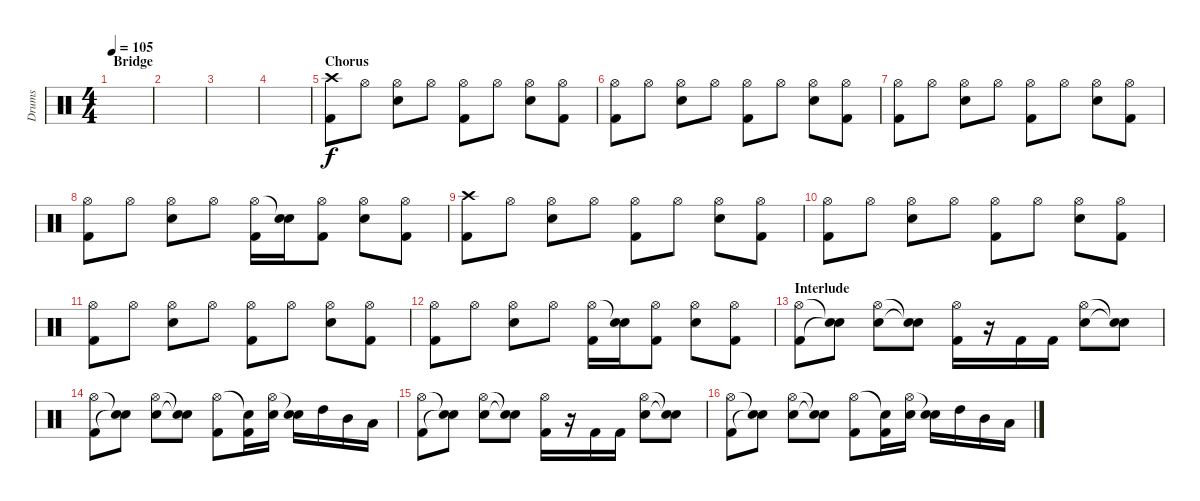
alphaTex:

\track ("Drums" "Drums") {instrument percussion}
\staff {score}
\articulation defaults
\ts (4 4)
\section ("" "Bridge")
\tempo 105
\clef neutral
\ks c
|
|
|
|
\section ("" "Chorus")
("Crash high (hit)" "Kick (hit) 2").8 "Hi-Hat (open)".8 ("Hi-Hat (open)" "Electric Snare (hit)").8 "Hi-Hat (open)".8 ("Hi-Hat (open)" "Kick (hit) 2").8 "Hi-Hat (open)".8 ("Hi-Hat (open)" "Electric Snare (hit)").8 ("Hi-Hat (open)" "Kick (hit) 2").8 |
("Hi-Hat (open)" "Kick (hit) 2").8 "Hi-Hat (open)".8 ("Hi-Hat (open)" "Electric Snare (hit)").8 "Hi-Hat (open)".8 ("Hi-Hat (open)" "Kick (hit) 2").8 "Hi-Hat (open)".8 ("Hi-Hat (open)" "Electric Snare (hit)").8 ("Hi-Hat (open)" "Kick (hit) 2").8 |
("Hi-Hat (open)" "Kick (hit) 2").8 "Hi-Hat (open)".8 ("Hi-Hat (open)" "Electric Snare (hit)").8 "Hi-Hat (open)".8 ("Hi-Hat (open)" "Kick (hit) 2").8 "Hi-Hat (open)".8 ("Hi-Hat (open)" "Electric Snare (hit)").8 ("Hi-Hat (open)" "Kick (hit) 2").8 |
("Hi-Hat (open)" "Kick (hit) 2").8 "Hi-Hat (open)".8 ("Hi-Hat (open)" "Electric Snare (hit)").8 "Hi-Hat (open)".8 ("Hi-Hat (open)" "Kick (hit) 2").16 ("Snare (hit)"{t} "Electric Snare (hit)").16 ("Hi-Hat (open)" "Kick (hit) 2").8 ("Hi-Hat (open)" "Electric Snare (hit)").8 ("Hi-Hat (open)" "Kick (hit) 2").8 |
("Crash high (hit)" "Kick (hit) 2").8 "Hi-Hat (open)".8 ("Hi-Hat (open)" "Electric Snare (hit)").8 "Hi-Hat (open)".8 ("Hi-Hat (open)" "Kick (hit) 2").8 "Hi-Hat (open)".8 ("Hi-Hat (open)" "Electric Snare (hit)").8 ("Hi-Hat (open)" "Kick (hit) 2").8 |
("Hi-Hat (open)" "Kick (hit) 2").8 "Hi-Hat (open)".8 ("Hi-Hat (open)" "Electric Snare (hit)").8 "Hi-Hat (open)".8 ("Hi-Hat (open)" "Kick (hit) 2").8 "Hi-Hat (open)".8 ("Hi-Hat (open)" "Electric Snare (hit)").8 ("Hi-Hat (open)" "Kick (hit) 2").8 |
("Hi-Hat (open)" "Kick (hit) 2").8 "Hi-Hat (open)".8 ("Hi-Hat (open)" "Electric Snare (hit)").8 "Hi-Hat (open)".8 ("Hi-Hat (open)" "Kick (hit) 2").8 "Hi-Hat (open)".8 ("Hi-Hat (open)" "Electric Snare (hit)").8 ("Hi-Hat (open)" "Kick (hit) 2").8 |
("Hi-Hat (open)" "Kick (hit) 2").8 "Hi-Hat (open)".8 ("Hi-Hat (open)" "Electric Snare (hit)").8 "Hi-Hat (open)".8 ("Hi-Hat (open)" "Kick (hit) 2").16 ("Snare (hit)"{t} "Electric Snare (hit)").16 ("Hi-Hat (open)" "Kick (hit) 2").8 ("Hi-Hat (open)" "Electric Snare (hit)").8 ("Hi-Hat (open)" "Kick (hit) 2").8 |
\section ("" "Interlude ")
("Hi-Hat (open)" "Kick (hit) 2").8 ("Snare (hit)"{t} "Snare (hit)"{t}).8 ("Hi-Hat (open)" "Electric Snare (hit)").8 ("Snare (hit)"{t} "Snare (hit)"{t}).8 ("Hi-Hat (open)" "Kick (hit) 2").16 r.16 "Kick (hit) 2".16 "Kick (hit) 2".16 ("Hi-Hat (open)" "Electric Snare (hit)").8 ("Snare (hit)"{t} "Snare (hit)"{t}).8 |
("Hi-Hat (open)" "Kick (hit) 2").8 ("Snare (hit)"{t} "Snare (hit)"{t}).8 ("Hi-Hat (open)" "Electric Snare (hit)").8 ("Snare (hit)"{t} "Snare (hit)"{t}).8 ("Hi-Hat (open)" "Kick (hit) 2").8 ("Snare (hit)"{t} "Kick (hit) 2").16 ("Hi-Hat (open)" "Electric Snare (hit)").16 ("Snare (hit)"{t} "Electric Snare (hit)").16 "High Tom (hit)".16 "Mid Tom (hit)".16 "Low Tom (hit)".16 |
("Hi-Hat (open)" "Kick (hit) 2").8 ("Snare (hit)"{t} "Snare (hit)"{t}).8 ("Hi-Hat (open)" "Electric Snare (hit)").8 ("Snare (hit)"{t} "Snare (hit)"{t}).8 ("Hi-Hat (open)" "Kick (hit) 2").16 r.16 "Kick (hit) 2".16 "Kick (hit) 2".16 ("Hi-Hat (open)" "Electric Snare (hit)").8 ("Snare (hit)"{t} "Snare (hit)"{t}).8 |
("Hi-Hat (open)" "Kick (hit) 2").8 ("Snare (hit)"{t} "Snare (hit)"{t}).8 ("Hi-Hat (open)" "Electric Snare (hit)").8 ("Snare (hit)"{t} "Snare (hit)"{t}).8 ("Hi-Hat (open)" "Kick (hit) 2").8 ("Snare (hit)"{t} "Kick (hit) 2").16 ("Hi-Hat (open)" "Electric Snare (hit)").16 ("Snare (hit)"{t} "Electric Snare (hit)").16 "High Tom (hit)".16 "Mid Tom (hit)".16 "Low Tom (hit)".16
